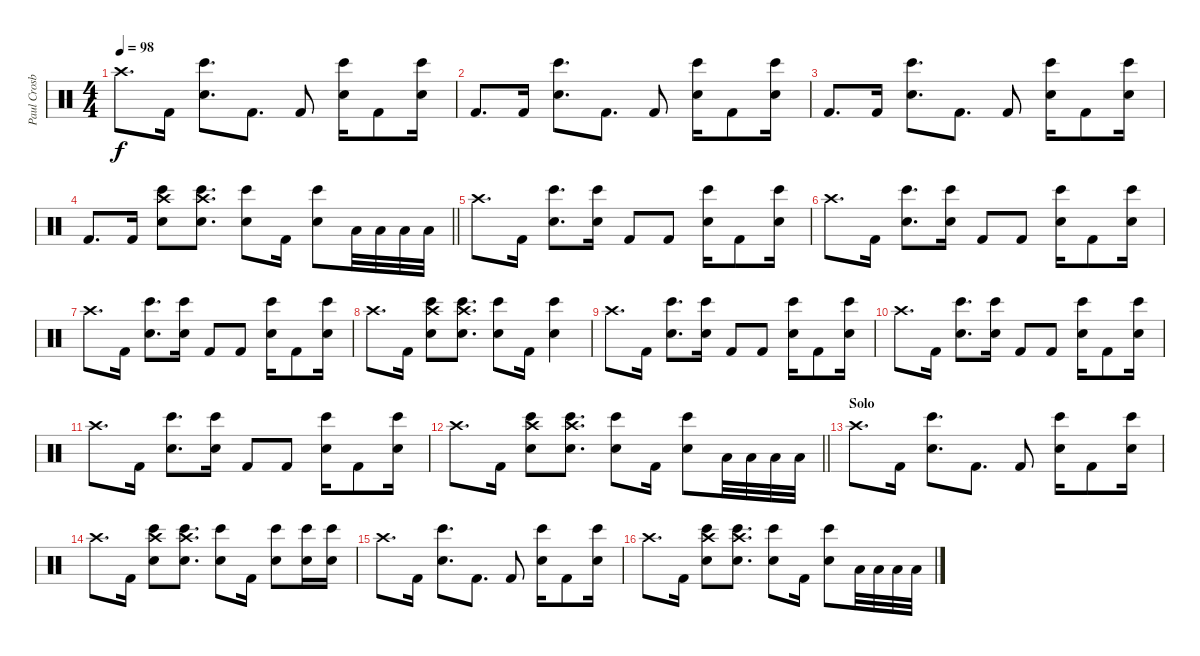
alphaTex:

\track ("Paul Crosby (Drums)" "Paul Crosb") {instrument percussion}
\staff {score}
\articulation defaults
\ts (4 4)
\tempo 98
\clef neutral
\ks c "Crash high (hit)".8{d dy f} "Kick (hit) 2".16
("Electric Snare (hit)" "Bongo High (hit)").8{d} "Kick (hit) 2".8{d} "Kick (hit) 2".8 ("Electric Snare (hit)" "Bongo High (hit)").16 "Kick (hit) 2".8 ("Electric Snare (hit)" "Bongo High (hit)").16 |
"Kick (hit) 2".8{d} "Kick (hit) 2".16 ("Electric Snare (hit)" "Bongo High (hit)").8{d} "Kick (hit) 2".8{d} "Kick (hit) 2".8 ("Electric Snare (hit)" "Bongo High (hit)").16 "Kick (hit) 2".8 ("Electric Snare (hit)" "Bongo High (hit)").16 |
"Kick (hit) 2".8{d} "Kick (hit) 2".16 ("Electric Snare (hit)" "Bongo High (hit)").8{d} "Kick (hit) 2".8{d} "Kick (hit) 2".8 ("Electric Snare (hit)" "Bongo High (hit)").16 "Kick (hit) 2".8 ("Electric Snare (hit)" "Bongo High (hit)").16 |
\barLineRight lightlight "Kick (hit) 2".8{d} "Kick (hit) 2".16
("Crash high (hit)" "Electric Snare (hit)" "Bongo High (hit)").8 ("Crash high (hit)" "Electric Snare (hit)" "Bongo High (hit)").8{d} ("Electric Snare (hit)" "Bongo High (hit)").8 "Kick (hit) 2".16 ("Electric Snare (hit)" "Bongo High (hit)").8 "Low Tom (hit)".32 "Low Tom (hit)".32 "Low Tom (hit)".32 "Low Tom (hit)".32 |
"Crash high (hit)".8{d} "Kick (hit) 2".16 ("Electric Snare (hit)" "Bongo High (hit)").8{d} ("Electric Snare (hit)" "Bongo High (hit)").16 "Kick (hit) 2".8 "Kick (hit) 2".8 ("Electric Snare (hit)" "Bongo High (hit)").16 "Kick (hit) 2".8 ("Electric Snare (hit)" "Bongo High (hit)").16 |
"Crash high (hit)".8{d} "Kick (hit) 2".16 ("Electric Snare (hit)" "Bongo High (hit)").8{d} ("Electric Snare (hit)" "Bongo High (hit)").16 "Kick (hit) 2".8 "Kick (hit) 2".8 ("Electric Snare (hit)" "Bongo High (hit)").16 "Kick (hit) 2".8 ("Electric Snare (hit)" "Bongo High (hit)").16 |
"Crash high (hit)".8{d} "Kick (hit) 2".16 ("Electric Snare (hit)" "Bongo High (hit)").8{d} ("Electric Snare (hit)" "Bongo High (hit)").16 "Kick (hit) 2".8 "Kick (hit) 2".8 ("Electric Snare (hit)" "Bongo High (hit)").16 "Kick (hit) 2".8 ("Electric Snare (hit)" "Bongo High (hit)").16 |
"Crash high (hit)".8{d} "Kick (hit) 2".16 ("Crash high (hit)" "Electric Snare (hit)" "Bongo High (hit)").8 ("Crash high (hit)" "Electric Snare (hit)" "Bongo High (hit)").8{d} ("Electric Snare (hit)" "Bongo High (hit)").8 "Kick (hit) 2".16 ("Electric Snare (hit)" "Bongo High (hit)").4 |
"Crash high (hit)".8{d} "Kick (hit) 2".16 ("Electric Snare (hit)" "Bongo High (hit)").8{d} ("Electric Snare (hit)" "Bongo High (hit)").16 "Kick (hit) 2".8 "Kick (hit) 2".8 ("Electric Snare (hit)" "Bongo High (hit)").16 "Kick (hit) 2".8 ("Electric Snare (hit)" "Bongo High (hit)").16 |
"Crash high (hit)".8{d} "Kick (hit) 2".16 ("Electric Snare (hit)" "Bongo High (hit)").8{d} ("Electric Snare (hit)" "Bongo High (hit)").16 "Kick (hit) 2".8 "Kick (hit) 2".8 ("Electric Snare (hit)" "Bongo High (hit)").16 "Kick (hit) 2".8 ("Electric Snare (hit)" "Bongo High (hit)").16 |
"Crash high (hit)".8{d} "Kick (hit) 2".16 ("Electric Snare (hit)" "Bongo High (hit)").8{d} ("Electric Snare (hit)" "Bongo High (hit)").16 "Kick (hit) 2".8 "Kick (hit) 2".8 ("Electric Snare (hit)" "Bongo High (hit)").16 "Kick (hit) 2".8 ("Electric Snare (hit)" "Bongo High (hit)").16 |
\barLineRight lightlight "Crash high (hit)".8{d} "Kick (hit) 2".16
("Crash high (hit)" "Electric Snare (hit)" "Bongo High (hit)").8 ("Crash high (hit)" "Electric Snare (hit)" "Bongo High (hit)").8{d} ("Electric Snare (hit)" "Bongo High (hit)").8 "Kick (hit) 2".16 ("Electric Snare (hit)" "Bongo High (hit)").8 "Low Tom (hit)".32 "Low Tom (hit)".32 "Low Tom (hit)".32 "Low Tom (hit)".32 |
\section ("" "Solo")
"Crash high (hit)".8{d volume 13} "Kick (hit) 2".16 ("Electric Snare (hit)" "Bongo High (hit)").8{d} "Kick (hit) 2".8{d} "Kick (hit) 2".8 ("Electric Snare (hit)" "Bongo High (hit)").16 "Kick (hit) 2".8 ("Electric Snare (hit)" "Bongo High (hit)").16 |
"Crash high (hit)".8{d} "Kick (hit) 2".16 ("Crash high (hit)" "Electric Snare (hit)" "Bongo High (hit)").8 ("Crash high (hit)" "Electric Snare (hit)" "Bongo High (hit)").8{d} ("Electric Snare (hit)" "Bongo High (hit)").8 "Kick (hit) 2".16 ("Electric Snare (hit)" "Bongo High (hit)").8 ("Electric Snare (hit)" "Bongo High (hit)").16 ("Electric Snare (hit)" "Bongo High (hit)").16 |
"Crash high (hit)".8{d} "Kick (hit) 2".16 ("Electric Snare (hit)" "Bongo High (hit)").8{d} "Kick (hit) 2".8{d} "Kick (hit) 2".8 ("Electric Snare (hit)" "Bongo High (hit)").16 "Kick (hit) 2".8 ("Electric Snare (hit)" "Bongo High (hit)").16 |
"Crash high (hit)".8{d} "Kick (hit) 2".16 ("Crash high (hit)" "Electric Snare (hit)" "Bongo High (hit)").8 ("Crash high (hit)" "Electric Snare (hit)" "Bongo High (hit)").8{d} ("Electric Snare (hit)" "Bongo High (hit)").8 "Kick (hit) 2".16 ("Electric Snare (hit)" "Bongo High (hit)").8 "Low Tom (hit)".32 "Low Tom (hit)".32 "Low Tom (hit)".32 "Low Tom (hit)".32
